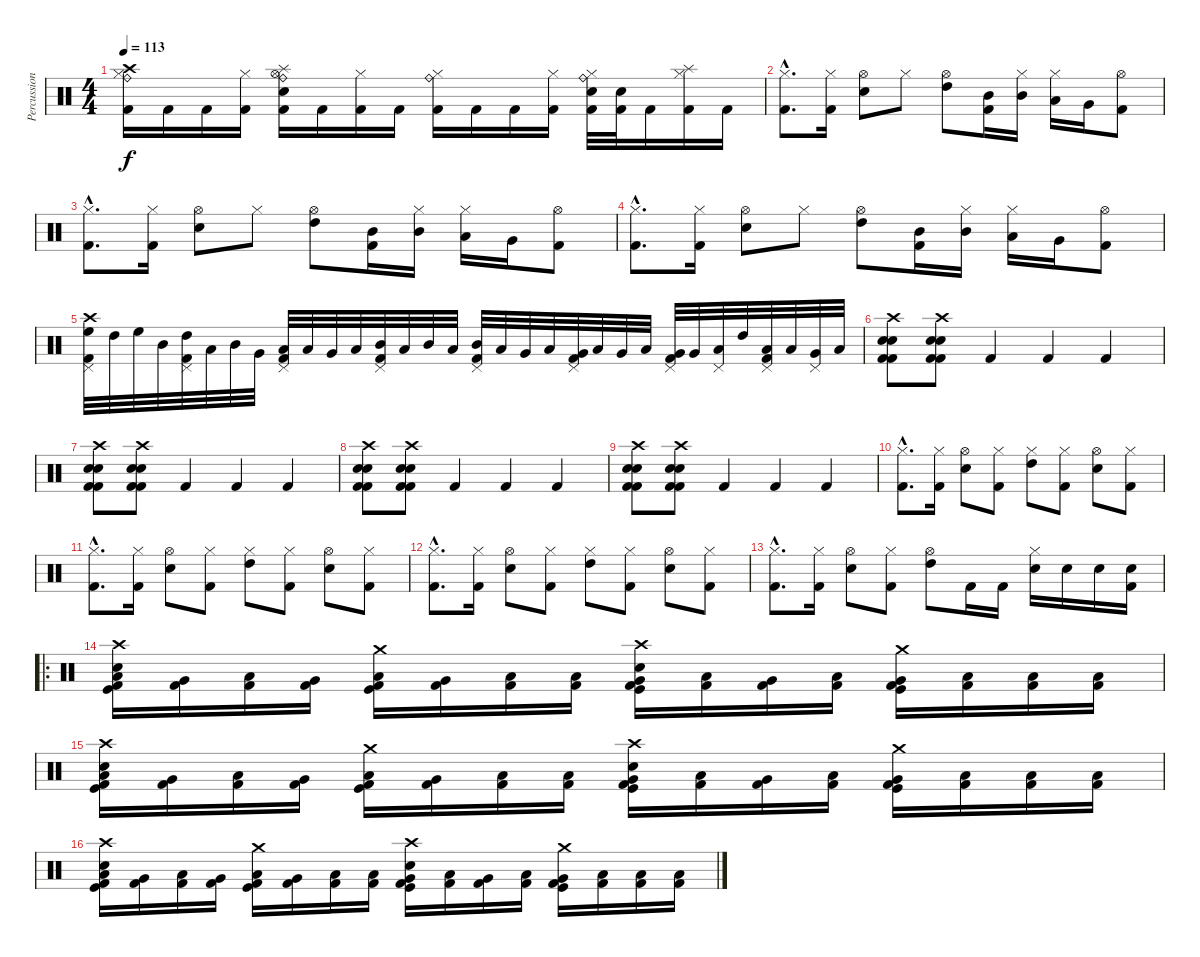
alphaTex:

\track ("Percussion" "Percussion") {instrument percussion}
\staff {score}
\articulation defaults
\ts (4 4)
\tempo 113
\clef neutral
\ks c
("Ride (bell)" "Crash high (hit)" "Hi-Hat (closed)" "Kick (hit) 2").16{dy f} "Kick (hit) 2".16 "Kick (hit) 2".16 ("Hi-Hat (closed)" "Kick (hit) 2").16 ("Ride (bell)" "Hi-Hat (open)" "Splash (hit)" "Snare (hit) 2" "Kick (hit) 2").16 "Kick (hit) 2".16 ("Hi-Hat (closed)" "Kick (hit) 2").16 "Kick (hit) 2".16 ("Ride (bell)" "Hi-Hat (closed)" "Kick (hit) 2").16 "Kick (hit) 2".16 "Kick (hit) 2".16 ("Hi-Hat (closed)" "Kick (hit) 2").16 ("Ride (bell)" "Hi-Hat (closed)" "Snare (hit) 2" "Kick (hit) 2").32 ("Snare (hit) 2" "Kick (hit) 2").32 "Kick (hit) 2".16 ("Hi-Hat (closed)" "Splash (hit)" "Kick (hit) 2").16 "Kick (hit) 2".16 |
("Hi-Hat (closed)"{hac} "Kick (hit) 2"{hac}).8{d} ("Hi-Hat (closed)" "Kick (hit) 2").16 ("Hi-Hat (open)" "Snare (hit) 2").8 "Hi-Hat (closed)".8 ("Hi-Hat (open)" "High Tom (hit)").8 ("Mid Tom (hit)" "Kick (hit) 2").16 ("Hi-Hat (closed)" "Mid Tom (hit)").16 ("Hi-Hat (closed)" "Low Tom (hit)").16 "Very Low Tom (hit)".16 ("Hi-Hat (open)" "Kick (hit) 2").8 |
("Hi-Hat (closed)"{hac} "Kick (hit) 2"{hac}).8{d} ("Hi-Hat (closed)" "Kick (hit) 2").16 ("Hi-Hat (open)" "Snare (hit) 2").8 "Hi-Hat (closed)".8 ("Hi-Hat (open)" "High Tom (hit)").8 ("Mid Tom (hit)" "Kick (hit) 2").16 ("Hi-Hat (closed)" "Mid Tom (hit)").16 ("Hi-Hat (closed)" "Low Tom (hit)").16 "Very Low Tom (hit)".16 ("Hi-Hat (open)" "Kick (hit) 2").8 |
("Hi-Hat (closed)"{hac} "Kick (hit) 2"{hac}).8{d} ("Hi-Hat (closed)" "Kick (hit) 2").16 ("Hi-Hat (open)" "Snare (hit) 2").8 "Hi-Hat (closed)".8 ("Hi-Hat (open)" "High Tom (hit)").8 ("Mid Tom (hit)" "Kick (hit) 2").16 ("Hi-Hat (closed)" "Mid Tom (hit)").16 ("Hi-Hat (closed)" "Low Tom (hit)").16 "Very Low Tom (hit)".16 ("Hi-Hat (open)" "Kick (hit) 2").8 |
("Pedal Hi-Hat (hit)" "Crash high (hit)" "High Floor Tom (hit)" "Kick (hit) 2").32 "High Tom (hit)".32 "High Floor Tom (hit)".32 "Mid Tom (hit)".32 ("Pedal Hi-Hat (hit)" "High Tom (hit)" "Kick (hit) 2").32 "Low Tom (hit)".32 "Mid Tom (hit)".32 "Very Low Tom (hit)".32 ("Pedal Hi-Hat (hit)" "Low Tom (hit)" "Kick (hit) 2").32 "Low Floor Tom (hit)".32 "Very Low Tom (hit)".32 "Low Floor Tom (hit)".32 ("Pedal Hi-Hat (hit)" "Mid Tom (hit)" "Kick (hit) 2").32 "Low Tom (hit)".32 "Mid Tom (hit)".32 "Low Tom (hit)".32 ("Pedal Hi-Hat (hit)" "Mid Tom (hit)" "Kick (hit) 2").32 "Low Tom (hit)".32 "Very Low Tom (hit)".32 "Low Floor Tom (hit)".32 ("Pedal Hi-Hat (hit)" "Very Low Tom (hit)" "Kick (hit) 2").32 "Low Tom (hit)".32 "Very Low Tom (hit)".32 "Low Floor Tom (hit)".32 ("Pedal Hi-Hat (hit)" "Very Low Tom (hit)" "Kick (hit) 2").32 "Very Low Tom (hit)".32 ("Pedal Hi-Hat (hit)" "Low Floor Tom (hit)").32 "High Tom (hit)".32 ("Pedal Hi-Hat (hit)" "Low Floor Tom (hit)" "Kick (hit) 2").32 "Low Tom (hit)".32 ("Pedal Hi-Hat (hit)" "Very Low Tom (hit)").32 "Low Tom (hit)".32 |
("Crash high (hit)" "Snare (hit) 2" "Snare (hit) 2" "Kick (hit) 2" "Kick (hit) 2").8 ("Crash high (hit)" "Snare (hit) 2" "Snare (hit) 2" "Kick (hit) 2" "Kick (hit) 2").8 "Kick (hit) 2".4 "Kick (hit) 2".4 "Kick (hit) 2".4 |
("Crash high (hit)" "Snare (hit) 2" "Snare (hit) 2" "Kick (hit) 2" "Kick (hit) 2").8 ("Crash high (hit)" "Snare (hit) 2" "Snare (hit) 2" "Kick (hit) 2" "Kick (hit) 2").8 "Kick (hit) 2".4 "Kick (hit) 2".4 "Kick (hit) 2".4 |
("Crash high (hit)" "Snare (hit) 2" "Snare (hit) 2" "Kick (hit) 2" "Kick (hit) 2").8 ("Crash high (hit)" "Snare (hit) 2" "Snare (hit) 2" "Kick (hit) 2" "Kick (hit) 2").8 "Kick (hit) 2".4 "Kick (hit) 2".4 "Kick (hit) 2".4 |
("Crash high (hit)" "Snare (hit) 2" "Snare (hit) 2" "Kick (hit) 2" "Kick (hit) 2").8 ("Crash high (hit)" "Snare (hit) 2" "Snare (hit) 2" "Kick (hit) 2" "Kick (hit) 2").8 "Kick (hit) 2".4 "Kick (hit) 2".4 "Kick (hit) 2".4 |
("Hi-Hat (closed)"{hac} "Kick (hit) 2"{hac}).8{d} ("Hi-Hat (closed)" "Kick (hit) 2").16 ("Hi-Hat (open)" "Snare (hit) 2").8 ("Hi-Hat (closed)" "Kick (hit) 2").8 ("Hi-Hat (closed)" "High Tom (hit)").8 ("Hi-Hat (closed)" "Kick (hit) 2").8 ("Hi-Hat (open)" "Snare (hit) 2").8 ("Hi-Hat (closed)" "Kick (hit) 2").8 |
("Hi-Hat (closed)"{hac} "Kick (hit) 2"{hac}).8{d} ("Hi-Hat (closed)" "Kick (hit) 2").16 ("Hi-Hat (open)" "Snare (hit) 2").8 ("Hi-Hat (closed)" "Kick (hit) 2").8 ("Hi-Hat (closed)" "High Tom (hit)").8 ("Hi-Hat (closed)" "Kick (hit) 2").8 ("Hi-Hat (open)" "Snare (hit) 2").8 ("Hi-Hat (closed)" "Kick (hit) 2").8 |
("Hi-Hat (closed)"{hac} "Kick (hit) 2"{hac}).8{d} ("Hi-Hat (closed)" "Kick (hit) 2").16 ("Hi-Hat (open)" "Snare (hit) 2").8 ("Hi-Hat (closed)" "Kick (hit) 2").8 ("Hi-Hat (closed)" "High Tom (hit)").8 ("Hi-Hat (closed)" "Kick (hit) 2").8 ("Hi-Hat (open)" "Snare (hit) 2").8 ("Hi-Hat (closed)" "Kick (hit) 2").8 |
("Hi-Hat (closed)"{hac} "Kick (hit) 2"{hac}).8{d} ("Hi-Hat (closed)" "Kick (hit) 2").16 ("Hi-Hat (open)" "Snare (hit) 2").8 ("Hi-Hat (closed)" "Kick (hit) 2").8 ("Hi-Hat (open)" "High Tom (hit)").8 "Kick (hit) 2".16 "Kick (hit) 2".16 ("Hi-Hat (closed)" "Snare (hit) 2").16 "Snare (hit) 2".16 "Snare (hit) 2".16 ("Snare (hit) 2" "Kick (hit) 2").16 |
\ro
("Crash high (hit)" "Kick (hit)" "Snare (hit) 2" "Low Floor Tom (hit)" "Kick (hit) 2").16 ("Very Low Tom (hit)" "Kick (hit) 2").16 ("Low Tom (hit)" "Kick (hit) 2").16 ("Very Low Tom (hit)" "Kick (hit) 2").16 ("Crash medium (hit)" "Kick (hit)" "Low Floor Tom (hit)" "Kick (hit) 2").16 ("Very Low Tom (hit)" "Kick (hit) 2").16 ("Low Floor Tom (hit)" "Kick (hit) 2").16 ("Low Tom (hit)" "Kick (hit) 2").16 ("Crash high (hit)" "Kick (hit)" "Snare (hit) 2" "Very Low Tom (hit)" "Kick (hit) 2").16 ("Low Floor Tom (hit)" "Kick (hit) 2").16 ("Very Low Tom (hit)" "Kick (hit) 2").16 ("Low Floor Tom (hit)" "Kick (hit) 2").16 ("Crash medium (hit)" "Kick (hit)" "Very Low Tom (hit)" "Kick (hit) 2").16 ("Low Floor Tom (hit)" "Kick (hit) 2").16 ("Low Tom (hit)" "Kick (hit) 2").16 ("Low Floor Tom (hit)" "Kick (hit) 2").16 |
("Crash high (hit)" "Kick (hit)" "Snare (hit) 2" "Low Floor Tom (hit)" "Kick (hit) 2").16 ("Very Low Tom (hit)" "Kick (hit) 2").16 ("Low Tom (hit)" "Kick (hit) 2").16 ("Very Low Tom (hit)" "Kick (hit) 2").16 ("Crash medium (hit)" "Kick (hit)" "Low Floor Tom (hit)" "Kick (hit) 2").16 ("Very Low Tom (hit)" "Kick (hit) 2").16 ("Low Floor Tom (hit)" "Kick (hit) 2").16 ("Low Tom (hit)" "Kick (hit) 2").16 ("Crash high (hit)" "Kick (hit)" "Snare (hit) 2" "Very Low Tom (hit)" "Kick (hit) 2").16 ("Low Floor Tom (hit)" "Kick (hit) 2").16 ("Very Low Tom (hit)" "Kick (hit) 2").16 ("Low Floor Tom (hit)" "Kick (hit) 2").16 ("Crash medium (hit)" "Kick (hit)" "Very Low Tom (hit)" "Kick (hit) 2").16 ("Low Floor Tom (hit)" "Kick (hit) 2").16 ("Low Tom (hit)" "Kick (hit) 2").16 ("Low Floor Tom (hit)" "Kick (hit) 2").16 |
("Crash high (hit)" "Kick (hit)" "Snare (hit) 2" "Low Floor Tom (hit)" "Kick (hit) 2").16 ("Very Low Tom (hit)" "Kick (hit) 2").16 ("Low Tom (hit)" "Kick (hit) 2").16 ("Very Low Tom (hit)" "Kick (hit) 2").16 ("Crash medium (hit)" "Kick (hit)" "Low Floor Tom (hit)" "Kick (hit) 2").16 ("Very Low Tom (hit)" "Kick (hit) 2").16 ("Low Floor Tom (hit)" "Kick (hit) 2").16 ("Low Tom (hit)" "Kick (hit) 2").16 ("Crash high (hit)" "Kick (hit)" "Snare (hit) 2" "Very Low Tom (hit)" "Kick (hit) 2").16 ("Low Floor Tom (hit)" "Kick (hit) 2").16 ("Very Low Tom (hit)" "Kick (hit) 2").16 ("Low Floor Tom (hit)" "Kick (hit) 2").16 ("Crash medium (hit)" "Kick (hit)" "Very Low Tom (hit)" "Kick (hit) 2").16 ("Low Floor Tom (hit)" "Kick (hit) 2").16 ("Low Tom (hit)" "Kick (hit) 2").16 ("Low Floor Tom (hit)" "Kick (hit) 2").16
